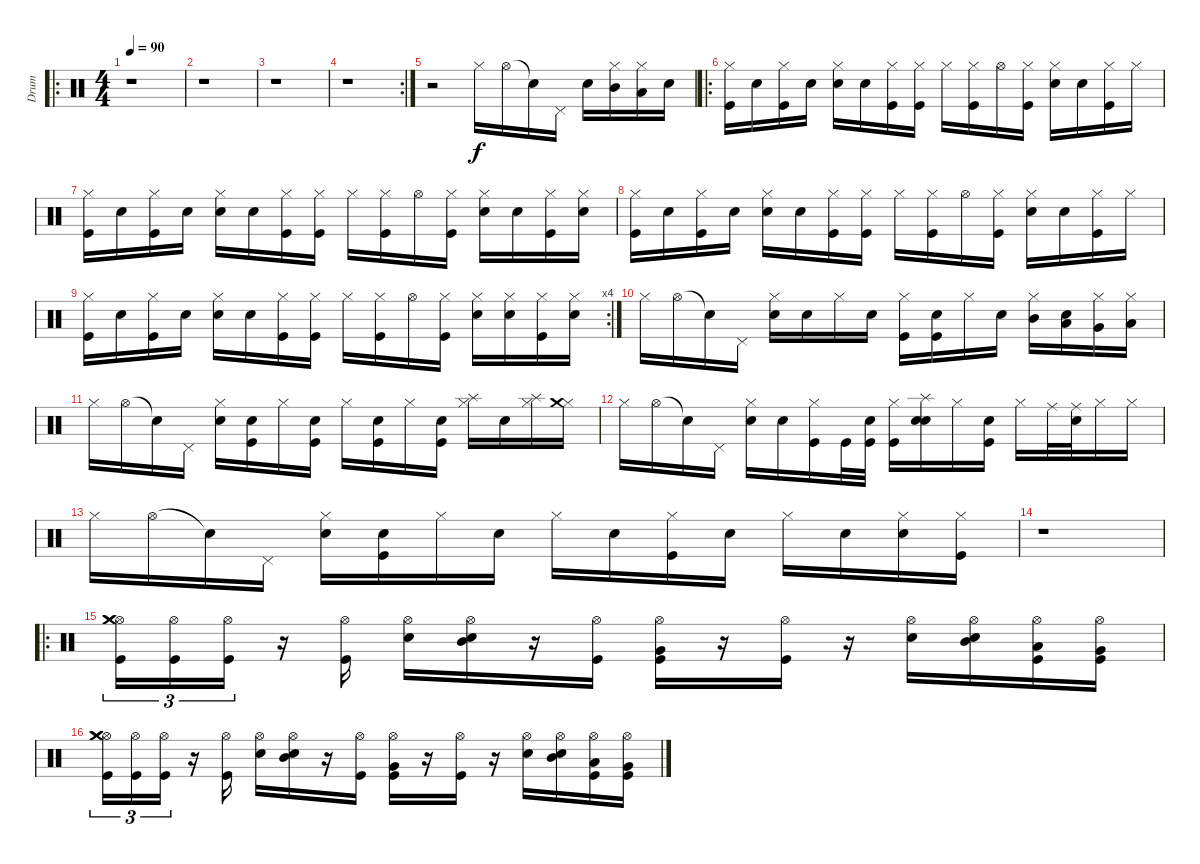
\track ("Drum" "Drum") {instrument percussion}
\staff {score}
\articulation defaults
\ro
\ts (4 4)
\tempo 90
\clef neutral
\ks c
r.1{dy f} |
r.1 |
r.1 |
\rc 2
r.1 |
r.2 "Hi-Hat (closed)".16 "Hi-Hat (open)".16 "Snare (hit)"{t}.16 "Pedal Hi-Hat (hit)".16 "Snare (hit)".16 ("Hi-Hat (closed)" "Mid Tom (hit)").16 ("Hi-Hat (closed)" "Low Tom (hit)").16 "Snare (hit)".16 |
\ro
("Hi-Hat (closed)" "Kick (hit)").16 "Snare (hit)".16 ("Hi-Hat (closed)" "Kick (hit)").16 "Snare (hit)".16 ("Hi-Hat (closed)" "Snare (hit) 2").16 "Snare (hit)".16 ("Hi-Hat (closed)" "Kick (hit)").16 ("Hi-Hat (closed)" "Kick (hit)").16 "Hi-Hat (closed)".16 ("Hi-Hat (closed)" "Kick (hit)").16 "Hi-Hat (open)".16 ("Hi-Hat (closed)" "Kick (hit)").16 ("Hi-Hat (closed)" "Snare (hit) 2").16 "Snare (hit)".16 ("Hi-Hat (closed)" "Kick (hit)").16 "Hi-Hat (closed)".16 |
("Hi-Hat (closed)" "Kick (hit)").16 "Snare (hit)".16 ("Hi-Hat (closed)" "Kick (hit)").16 "Snare (hit)".16 ("Hi-Hat (closed)" "Snare (hit) 2").16 "Snare (hit)".16 ("Hi-Hat (closed)" "Kick (hit)").16 ("Hi-Hat (closed)" "Kick (hit)").16 "Hi-Hat (closed)".16 ("Hi-Hat (closed)" "Kick (hit)").16 "Hi-Hat (open)".16 ("Hi-Hat (closed)" "Kick (hit)").16 ("Hi-Hat (closed)" "Snare (hit) 2").16 "Snare (hit)".16 ("Hi-Hat (closed)" "Kick (hit)").16 ("Hi-Hat (closed)" "Snare (hit) 2").16 |
("Hi-Hat (closed)" "Kick (hit)").16 "Snare (hit)".16 ("Hi-Hat (closed)" "Kick (hit)").16 "Snare (hit)".16 ("Hi-Hat (closed)" "Snare (hit) 2").16 "Snare (hit)".16 ("Hi-Hat (closed)" "Kick (hit)").16 ("Hi-Hat (closed)" "Kick (hit)").16 "Hi-Hat (closed)".16 ("Hi-Hat (closed)" "Kick (hit)").16 "Hi-Hat (open)".16 ("Hi-Hat (closed)" "Kick (hit)").16 ("Hi-Hat (closed)" "Snare (hit) 2").16 "Snare (hit)".16 ("Hi-Hat (closed)" "Kick (hit)").16 "Hi-Hat (closed)".16 |
\rc 4
("Hi-Hat (closed)" "Kick (hit)").16 "Snare (hit)".16 ("Hi-Hat (closed)" "Kick (hit)").16 "Snare (hit)".16 ("Hi-Hat (closed)" "Snare (hit) 2").16 "Snare (hit)".16 ("Hi-Hat (closed)" "Kick (hit)").16 ("Hi-Hat (closed)" "Kick (hit)").16 "Hi-Hat (closed)".16 ("Hi-Hat (closed)" "Kick (hit)").16 "Hi-Hat (open)".16 ("Hi-Hat (closed)" "Kick (hit)").16 ("Hi-Hat (closed)" "Snare (hit) 2").16 ("Hi-Hat (closed)" "Snare (hit) 2").16 ("Hi-Hat (closed)" "Kick (hit)").16 ("Hi-Hat (closed)" "Snare (hit) 2").16 |
"Hi-Hat (closed)".16 "Hi-Hat (open)".16 "Snare (hit)"{t}.16 "Pedal Hi-Hat (hit)".16 ("Hi-Hat (closed)" "Snare (hit) 2").16 "Snare (hit)".16 "Hi-Hat (closed)".16 "Snare (hit)".16 ("Hi-Hat (closed)" "Kick (hit)").16 ("Snare (hit)" "Kick (hit)").16 "Hi-Hat (closed)".16 "Snare (hit)".16 ("Hi-Hat (closed)" "Mid Tom (hit)").16 ("Snare (hit)" "Low Tom (hit)").16 ("Hi-Hat (closed)" "Very Low Tom (hit)").16 ("Hi-Hat (closed)" "Low Floor Tom (hit)").16 |
"Hi-Hat (closed)".16 "Hi-Hat (open)".16 "Snare (hit)"{t}.16 "Pedal Hi-Hat (hit)".16 ("Hi-Hat (closed)" "Snare (hit) 2").16 ("Snare (hit)" "Kick (hit)").16 "Hi-Hat (closed)".16 ("Snare (hit)" "Kick (hit)").16 "Hi-Hat (closed)".16 ("Snare (hit)" "Kick (hit)").16 "Hi-Hat (closed)".16 ("Snare (hit)" "Kick (hit)").16 ("Hi-Hat (closed)" "Splash (hit)").16 "Snare (hit)".16 ("Hi-Hat (closed)" "Splash (hit)").16 ("Hi-Hat (closed)" "Crash medium (hit)").16 |
"Hi-Hat (closed)".16 "Hi-Hat (open)".16 "Snare (hit)"{t}.16 "Pedal Hi-Hat (hit)".16 ("Hi-Hat (closed)" "Snare (hit) 2").16 "Snare (hit)".16 ("Hi-Hat (closed)" "Kick (hit)").16 "Kick (hit)".32 ("Snare (hit)" "Kick (hit)").32 ("Hi-Hat (closed)" "Kick (hit)").16 ("Snare (hit)" "Splash (hit)" "Snare (hit) 2").16 "Hi-Hat (closed)".16 ("Snare (hit)" "Kick (hit)").16 "Hi-Hat (closed)".16 "Ride (middle)".32 ("Snare (hit)" "Ride (middle)").32 "Hi-Hat (closed)".16 "Hi-Hat (closed)".16 |
"Hi-Hat (closed)".16 "Hi-Hat (open)".16 "Snare (hit)"{t}.16 "Pedal Hi-Hat (hit)".16 ("Hi-Hat (closed)" "Snare (hit) 2").16 ("Snare (hit)" "Kick (hit)").16 "Hi-Hat (closed)".16 "Snare (hit)".16 "Hi-Hat (closed)".16 "Snare (hit)".16 ("Hi-Hat (closed)" "Kick (hit)").16 "Snare (hit)".16 "Hi-Hat (closed)".16 "Snare (hit)".16 ("Hi-Hat (closed)" "Snare (hit) 2").16 ("Hi-Hat (closed)" "Kick (hit)").16 |
r.1 |
\ro
("Hi-Hat (open)" "Crash medium (hit)" "Crash medium (hit)" "Kick (hit)").16{tu (3 2)} ("Hi-Hat (open)" "Kick (hit)").16{tu (3 2)} ("Hi-Hat (open)" "Kick (hit)").16{tu (3 2)} r.16 ("Hi-Hat (open)" "Kick (hit)").16 ("Hi-Hat (open)" "Snare (hit) 2").16 ("Hi-Hat (open)" "Mid Tom (hit)" "Snare (hit) 2").16 r.16 ("Hi-Hat (open)" "Kick (hit)").16 ("Hi-Hat (open)" "Very Low Tom (hit)" "Kick (hit)").16 r.16 ("Hi-Hat (open)" "Kick (hit)").16 r.16 ("Hi-Hat (open)" "Snare (hit) 2").16 ("Hi-Hat (open)" "Mid Tom (hit)" "Snare (hit) 2").16 ("Hi-Hat (open)" "Low Tom (hit)" "Kick (hit)").16 ("Hi-Hat (open)" "Very Low Tom (hit)" "Kick (hit)").16 |
("Hi-Hat (open)" "Crash medium (hit)" "Crash medium (hit)" "Kick (hit)").16{tu (3 2)} ("Hi-Hat (open)" "Kick (hit)").16{tu (3 2)} ("Hi-Hat (open)" "Kick (hit)").16{tu (3 2)} r.16 ("Hi-Hat (open)" "Kick (hit)").16 ("Hi-Hat (open)" "Snare (hit) 2").16 ("Hi-Hat (open)" "Mid Tom (hit)" "Snare (hit) 2").16 r.16 ("Hi-Hat (open)" "Kick (hit)").16 ("Hi-Hat (open)" "Very Low Tom (hit)" "Kick (hit)").16 r.16 ("Hi-Hat (open)" "Kick (hit)").16 r.16 ("Hi-Hat (open)" "Snare (hit) 2").16 ("Hi-Hat (open)" "Mid Tom (hit)" "Snare (hit) 2").16 ("Hi-Hat (open)" "Low Tom (hit)" "Kick (hit)").16 ("Hi-Hat (open)" "Very Low Tom (hit)" "Kick (hit)").16
